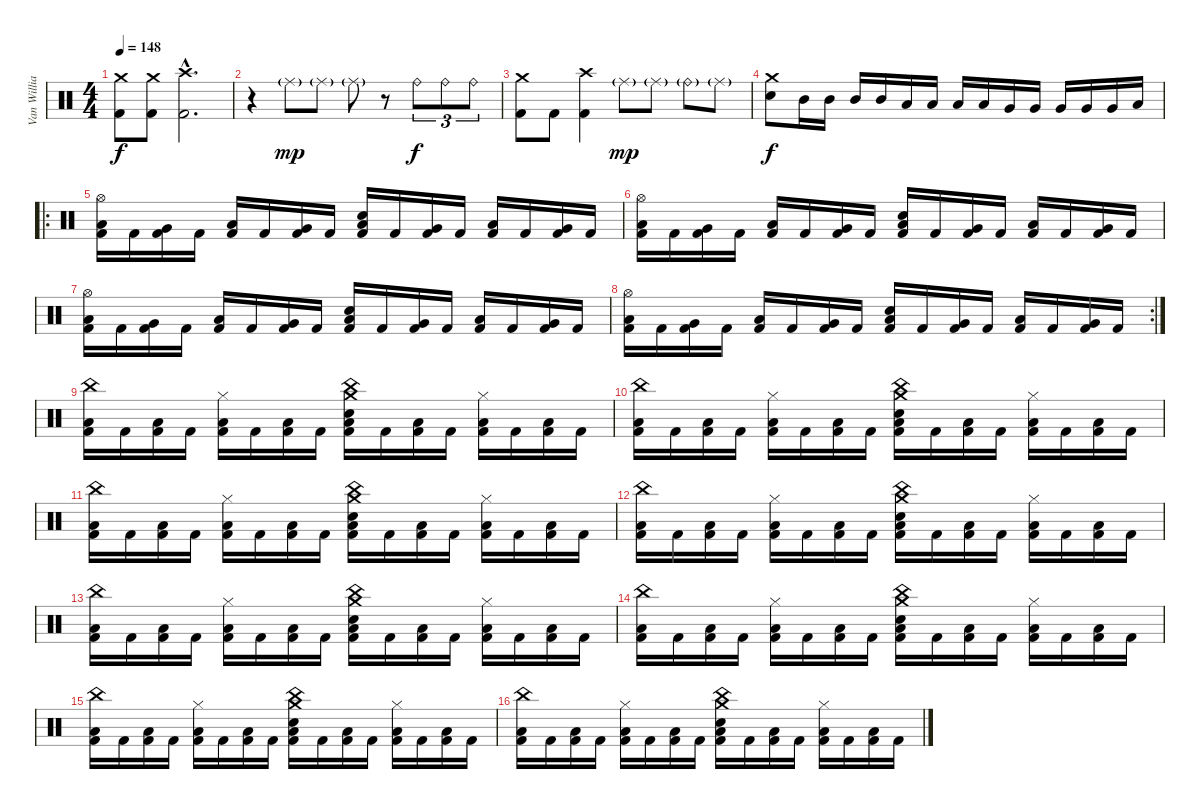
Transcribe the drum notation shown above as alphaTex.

\track ("Van Williams" "Van Willia") {instrument percussion}
\staff {score}
\articulation defaults
\ts (4 4)
\tempo 148
\clef neutral
\ks c
("Crash medium (hit)" "Kick (hit) 2").8{dy f} ("Crash medium (hit)" "Kick (hit) 2").8 ("Crash high (hit)"{hac} "Kick (hit) 2"{hac}).2{d} |
r.4 "Ride (middle)"{g}.8{dy mp} "Ride (middle)"{g}.8 "Ride (middle)"{g}.8 r.8 "Ride (bell)".8{tu (3 2) dy f} "Ride (bell)".8{tu (3 2)} "Ride (bell)".8{tu (3 2)} |
("Crash medium (hit)" "Kick (hit) 2").8 "Kick (hit) 2".8 ("Crash high (hit)" "Kick (hit) 2").4 "Ride (middle)"{g}.8{dy mp} "Ride (middle)"{g}.8 "Ride (bell)"{g}.8 "Ride (middle)"{g}.8 |
("Crash medium (hit)" "Electric Snare (hit)").8{dy f} "Mid Tom (hit)".16 "Mid Tom (hit)".16 "Mid Tom (hit)".16 "Mid Tom (hit)".16 "Low Tom (hit)".16 "Low Tom (hit)".16 "Low Tom (hit)".16 "Low Tom (hit)".16 "Very Low Tom (hit)".16 "Very Low Tom (hit)".16 "Very Low Tom (hit)".16 "Very Low Tom (hit)".16 "Very Low Tom (hit)".16 "Low Floor Tom (hit)".16 |
\ro
("Hi-Hat (open)" "Low Floor Tom (hit)" "Kick (hit) 2").16 "Kick (hit) 2".16 ("Very Low Tom (hit)" "Kick (hit) 2").16 "Kick (hit) 2".16 ("Low Floor Tom (hit)" "Kick (hit) 2").16 "Kick (hit) 2".16 ("Very Low Tom (hit)" "Kick (hit) 2").16 "Kick (hit) 2".16 ("Electric Snare (hit)" "Low Floor Tom (hit)" "Kick (hit) 2").16 "Kick (hit) 2".16 ("Very Low Tom (hit)" "Kick (hit) 2").16 "Kick (hit) 2".16 ("Low Floor Tom (hit)" "Kick (hit) 2").16 "Kick (hit) 2".16 ("Very Low Tom (hit)" "Kick (hit) 2").16 "Kick (hit) 2".16 |
("Hi-Hat (open)" "Low Floor Tom (hit)" "Kick (hit) 2").16 "Kick (hit) 2".16 ("Very Low Tom (hit)" "Kick (hit) 2").16 "Kick (hit) 2".16 ("Low Floor Tom (hit)" "Kick (hit) 2").16 "Kick (hit) 2".16 ("Very Low Tom (hit)" "Kick (hit) 2").16 "Kick (hit) 2".16 ("Electric Snare (hit)" "Low Floor Tom (hit)" "Kick (hit) 2").16 "Kick (hit) 2".16 ("Very Low Tom (hit)" "Kick (hit) 2").16 "Kick (hit) 2".16 ("Low Floor Tom (hit)" "Kick (hit) 2").16 "Kick (hit) 2".16 ("Very Low Tom (hit)" "Kick (hit) 2").16 "Kick (hit) 2".16 |
("Hi-Hat (open)" "Low Floor Tom (hit)" "Kick (hit) 2").16 "Kick (hit) 2".16 ("Very Low Tom (hit)" "Kick (hit) 2").16 "Kick (hit) 2".16 ("Low Floor Tom (hit)" "Kick (hit) 2").16 "Kick (hit) 2".16 ("Very Low Tom (hit)" "Kick (hit) 2").16 "Kick (hit) 2".16 ("Electric Snare (hit)" "Low Floor Tom (hit)" "Kick (hit) 2").16 "Kick (hit) 2".16 ("Very Low Tom (hit)" "Kick (hit) 2").16 "Kick (hit) 2".16 ("Low Floor Tom (hit)" "Kick (hit) 2").16 "Kick (hit) 2".16 ("Very Low Tom (hit)" "Kick (hit) 2").16 "Kick (hit) 2".16 |
\rc 2
("Hi-Hat (open)" "Low Floor Tom (hit)" "Kick (hit) 2").16 "Kick (hit) 2".16 ("Very Low Tom (hit)" "Kick (hit) 2").16 "Kick (hit) 2".16 ("Low Floor Tom (hit)" "Kick (hit) 2").16 "Kick (hit) 2".16 ("Very Low Tom (hit)" "Kick (hit) 2").16 "Kick (hit) 2".16 ("Electric Snare (hit)" "Low Floor Tom (hit)" "Kick (hit) 2").16 "Kick (hit) 2".16 ("Very Low Tom (hit)" "Kick (hit) 2").16 "Kick (hit) 2".16 ("Low Floor Tom (hit)" "Kick (hit) 2").16 "Kick (hit) 2".16 ("Very Low Tom (hit)" "Kick (hit) 2").16 "Kick (hit) 2".16 |
("China (hit)" "Low Floor Tom (hit)" "Kick (hit) 2").16 "Kick (hit) 2".16 ("Low Floor Tom (hit)" "Kick (hit) 2").16 "Kick (hit) 2".16 ("Hi-Hat (closed)" "Low Floor Tom (hit)" "Kick (hit) 2").16 "Kick (hit) 2".16 ("Low Floor Tom (hit)" "Kick (hit) 2").16 "Kick (hit) 2".16 ("Crash medium (hit)" "China (hit)" "Electric Snare (hit)" "Low Floor Tom (hit)" "Kick (hit) 2").16 "Kick (hit) 2".16 ("Low Floor Tom (hit)" "Kick (hit) 2").16 "Kick (hit) 2".16 ("Hi-Hat (closed)" "Low Floor Tom (hit)" "Kick (hit) 2").16 "Kick (hit) 2".16 ("Low Floor Tom (hit)" "Kick (hit) 2").16 "Kick (hit) 2".16 |
("China (hit)" "Low Floor Tom (hit)" "Kick (hit) 2").16 "Kick (hit) 2".16 ("Low Floor Tom (hit)" "Kick (hit) 2").16 "Kick (hit) 2".16 ("Hi-Hat (closed)" "Low Floor Tom (hit)" "Kick (hit) 2").16 "Kick (hit) 2".16 ("Low Floor Tom (hit)" "Kick (hit) 2").16 "Kick (hit) 2".16 ("Crash medium (hit)" "China (hit)" "Electric Snare (hit)" "Low Floor Tom (hit)" "Kick (hit) 2").16 "Kick (hit) 2".16 ("Low Floor Tom (hit)" "Kick (hit) 2").16 "Kick (hit) 2".16 ("Hi-Hat (closed)" "Low Floor Tom (hit)" "Kick (hit) 2").16 "Kick (hit) 2".16 ("Low Floor Tom (hit)" "Kick (hit) 2").16 "Kick (hit) 2".16 |
("China (hit)" "Low Floor Tom (hit)" "Kick (hit) 2").16 "Kick (hit) 2".16 ("Low Floor Tom (hit)" "Kick (hit) 2").16 "Kick (hit) 2".16 ("Hi-Hat (closed)" "Low Floor Tom (hit)" "Kick (hit) 2").16 "Kick (hit) 2".16 ("Low Floor Tom (hit)" "Kick (hit) 2").16 "Kick (hit) 2".16 ("Crash medium (hit)" "China (hit)" "Electric Snare (hit)" "Low Floor Tom (hit)" "Kick (hit) 2").16 "Kick (hit) 2".16 ("Low Floor Tom (hit)" "Kick (hit) 2").16 "Kick (hit) 2".16 ("Hi-Hat (closed)" "Low Floor Tom (hit)" "Kick (hit) 2").16 "Kick (hit) 2".16 ("Low Floor Tom (hit)" "Kick (hit) 2").16 "Kick (hit) 2".16 |
("China (hit)" "Low Floor Tom (hit)" "Kick (hit) 2").16 "Kick (hit) 2".16 ("Low Floor Tom (hit)" "Kick (hit) 2").16 "Kick (hit) 2".16 ("Hi-Hat (closed)" "Low Floor Tom (hit)" "Kick (hit) 2").16 "Kick (hit) 2".16 ("Low Floor Tom (hit)" "Kick (hit) 2").16 "Kick (hit) 2".16 ("Crash medium (hit)" "China (hit)" "Electric Snare (hit)" "Low Floor Tom (hit)" "Kick (hit) 2").16 "Kick (hit) 2".16 ("Low Floor Tom (hit)" "Kick (hit) 2").16 "Kick (hit) 2".16 ("Hi-Hat (closed)" "Low Floor Tom (hit)" "Kick (hit) 2").16 "Kick (hit) 2".16 ("Low Floor Tom (hit)" "Kick (hit) 2").16 "Kick (hit) 2".16 |
("China (hit)" "Low Floor Tom (hit)" "Kick (hit) 2").16 "Kick (hit) 2".16 ("Low Floor Tom (hit)" "Kick (hit) 2").16 "Kick (hit) 2".16 ("Hi-Hat (closed)" "Low Floor Tom (hit)" "Kick (hit) 2").16 "Kick (hit) 2".16 ("Low Floor Tom (hit)" "Kick (hit) 2").16 "Kick (hit) 2".16 ("Crash medium (hit)" "China (hit)" "Electric Snare (hit)" "Low Floor Tom (hit)" "Kick (hit) 2").16 "Kick (hit) 2".16 ("Low Floor Tom (hit)" "Kick (hit) 2").16 "Kick (hit) 2".16 ("Hi-Hat (closed)" "Low Floor Tom (hit)" "Kick (hit) 2").16 "Kick (hit) 2".16 ("Low Floor Tom (hit)" "Kick (hit) 2").16 "Kick (hit) 2".16 |
("China (hit)" "Low Floor Tom (hit)" "Kick (hit) 2").16 "Kick (hit) 2".16 ("Low Floor Tom (hit)" "Kick (hit) 2").16 "Kick (hit) 2".16 ("Hi-Hat (closed)" "Low Floor Tom (hit)" "Kick (hit) 2").16 "Kick (hit) 2".16 ("Low Floor Tom (hit)" "Kick (hit) 2").16 "Kick (hit) 2".16 ("Crash medium (hit)" "China (hit)" "Electric Snare (hit)" "Low Floor Tom (hit)" "Kick (hit) 2").16 "Kick (hit) 2".16 ("Low Floor Tom (hit)" "Kick (hit) 2").16 "Kick (hit) 2".16 ("Hi-Hat (closed)" "Low Floor Tom (hit)" "Kick (hit) 2").16 "Kick (hit) 2".16 ("Low Floor Tom (hit)" "Kick (hit) 2").16 "Kick (hit) 2".16 |
("China (hit)" "Low Floor Tom (hit)" "Kick (hit) 2").16 "Kick (hit) 2".16 ("Low Floor Tom (hit)" "Kick (hit) 2").16 "Kick (hit) 2".16 ("Hi-Hat (closed)" "Low Floor Tom (hit)" "Kick (hit) 2").16 "Kick (hit) 2".16 ("Low Floor Tom (hit)" "Kick (hit) 2").16 "Kick (hit) 2".16 ("Crash medium (hit)" "China (hit)" "Electric Snare (hit)" "Low Floor Tom (hit)" "Kick (hit) 2").16 "Kick (hit) 2".16 ("Low Floor Tom (hit)" "Kick (hit) 2").16 "Kick (hit) 2".16 ("Hi-Hat (closed)" "Low Floor Tom (hit)" "Kick (hit) 2").16 "Kick (hit) 2".16 ("Low Floor Tom (hit)" "Kick (hit) 2").16 "Kick (hit) 2".16 |
("China (hit)" "Low Floor Tom (hit)" "Kick (hit) 2").16 "Kick (hit) 2".16 ("Low Floor Tom (hit)" "Kick (hit) 2").16 "Kick (hit) 2".16 ("Hi-Hat (closed)" "Low Floor Tom (hit)" "Kick (hit) 2").16 "Kick (hit) 2".16 ("Low Floor Tom (hit)" "Kick (hit) 2").16 "Kick (hit) 2".16 ("Crash medium (hit)" "China (hit)" "Electric Snare (hit)" "Low Floor Tom (hit)" "Kick (hit) 2").16 "Kick (hit) 2".16 ("Low Floor Tom (hit)" "Kick (hit) 2").16 "Kick (hit) 2".16 ("Hi-Hat (closed)" "Low Floor Tom (hit)" "Kick (hit) 2").16 "Kick (hit) 2".16 ("Low Floor Tom (hit)" "Kick (hit) 2").16 "Kick (hit) 2".16
